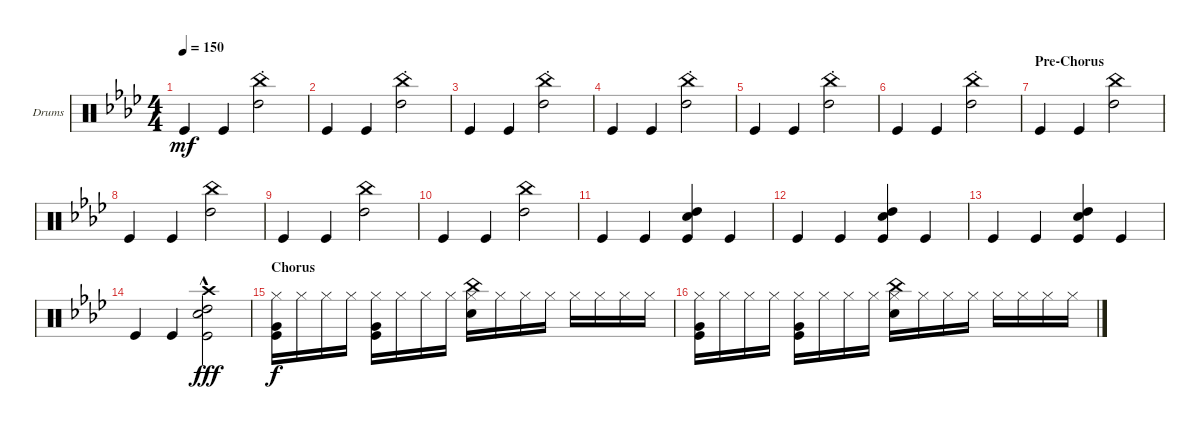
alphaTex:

\bracketExtendMode groupsimilarinstruments
\firstSystemTrackNameOrientation horizontal
\otherSystemsTrackNameOrientation horizontal
\track ("Drums" "Drums") {instrument percussion}
\staff {score}
\articulation defaults
\ts (4 4)
\tempo 150
\clef neutral
\ks ab "Kick (hit)".4{dy mf} "Kick (hit)".4
("High Tom (hit)" "China (hit)"{st}).2 |
"Kick (hit)".4 "Kick (hit)".4 ("High Tom (hit)" "China (hit)"{st}).2 |
"Kick (hit)".4 "Kick (hit)".4 ("High Tom (hit)" "China (hit)"{st}).2 |
"Kick (hit)".4 "Kick (hit)".4 ("High Tom (hit)" "China (hit)"{st}).2 |
"Kick (hit)".4 "Kick (hit)".4 ("High Tom (hit)" "China (hit)"{st}).2 |
"Kick (hit)".4 "Kick (hit)".4 ("High Tom (hit)" "China (hit)"{st}).2 |
\section ("" "Pre-Chorus")
"Kick (hit)".4 "Kick (hit)".4 ("High Tom (hit)" "China (hit)").2 |
"Kick (hit)".4 "Kick (hit)".4 ("High Tom (hit)" "China (hit)").2 |
"Kick (hit)".4 "Kick (hit)".4 ("High Tom (hit)" "China (hit)").2 |
"Kick (hit)".4 "Kick (hit)".4 ("High Tom (hit)" "China (hit)").2 |
"Kick (hit)".4 "Kick (hit)".4 ("Kick (hit)" "Snare (hit) 2" "High Tom (hit)").4 "Kick (hit)".4 |
"Kick (hit)".4 "Kick (hit)".4 ("Kick (hit)" "Snare (hit) 2" "High Tom (hit)").4 "Kick (hit)".4 |
"Kick (hit)".4 "Kick (hit)".4 ("Kick (hit)" "Snare (hit) 2" "High Tom (hit)").4 "Kick (hit)".4 |
"Kick (hit)".4 "Kick (hit)".4 ("Kick (hit)" "Snare (hit) 2" "High Tom (hit)" "Crash high (hit)"{hac}).2{dy fff} |
\section ("" "Chorus")
("Kick (hit)" "Very Low Tom (hit)" "Hi-Hat (closed)").16{dy f} "Hi-Hat (closed)".16 "Hi-Hat (closed)".16 "Hi-Hat (closed)".16 ("Kick (hit)" "Very Low Tom (hit)" "Hi-Hat (closed)").16 "Hi-Hat (closed)".16 "Hi-Hat (closed)".16 "Hi-Hat (closed)".16 ("Hi-Hat (closed)" "Snare (hit) 2" "China (hit)").16 "Hi-Hat (closed)".16 "Hi-Hat (closed)".16 "Hi-Hat (closed)".16 "Hi-Hat (closed)".16 "Hi-Hat (closed)".16 "Hi-Hat (closed)".16 "Hi-Hat (closed)".16 |
("Kick (hit)" "Very Low Tom (hit)" "Hi-Hat (closed)").16 "Hi-Hat (closed)".16 "Hi-Hat (closed)".16 "Hi-Hat (closed)".16 ("Kick (hit)" "Very Low Tom (hit)" "Hi-Hat (closed)").16 "Hi-Hat (closed)".16 "Hi-Hat (closed)".16 "Hi-Hat (closed)".16 ("Hi-Hat (closed)" "Snare (hit) 2" "China (hit)").16 "Hi-Hat (closed)".16 "Hi-Hat (closed)".16 "Hi-Hat (closed)".16 "Hi-Hat (closed)".16 "Hi-Hat (closed)".16 "Hi-Hat (closed)".16 "Hi-Hat (closed)".16
